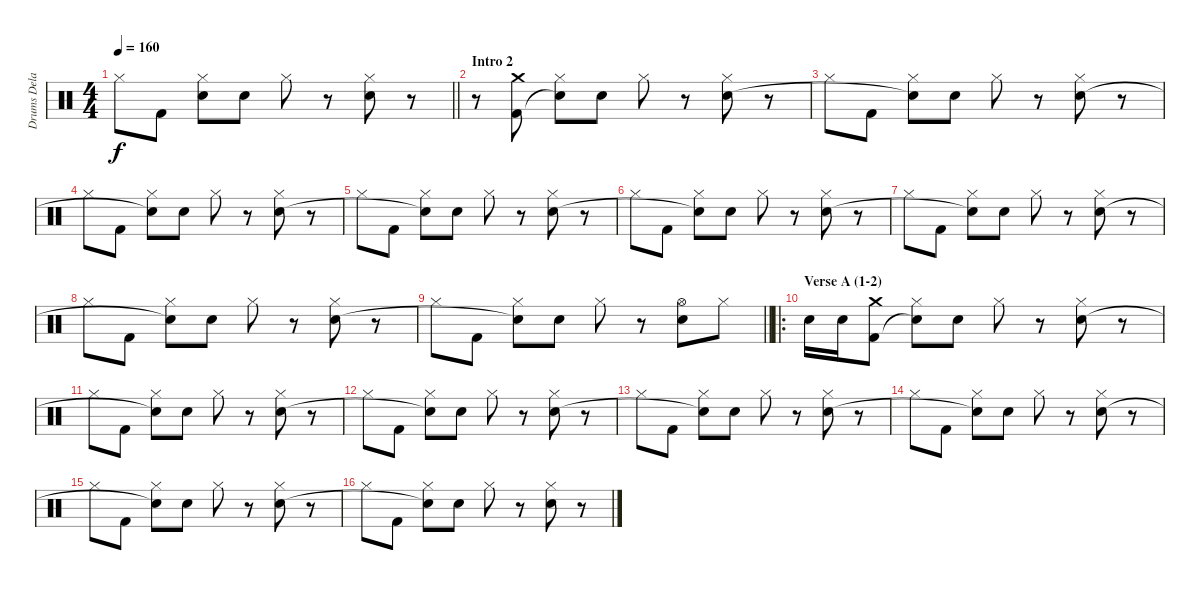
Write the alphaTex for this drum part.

\track ("Drums Delay" "Drums Dela") {instrument percussion}
\staff {score}
\articulation defaults
\ts (4 4)
\tempo 160
\clef neutral
\barLineRight lightlight
\ks c "Hi-Hat (closed)".8{dy f} "Kick (hit) 2".8
("Hi-Hat (closed)" "Snare (hit)"{t}).8 "Electric Snare (hit)".8 "Hi-Hat (closed)".8 r.8 ("Hi-Hat (closed)" "Electric Snare (hit)").8 r.8 |
\section ("" "Intro 2")
r.8 ("Crash medium (hit)" "Kick (hit) 2").8 ("Hi-Hat (closed)" "Snare (hit)"{t}).8 "Electric Snare (hit)".8 "Hi-Hat (closed)".8 r.8 ("Hi-Hat (closed)" "Electric Snare (hit)").8 r.8 |
"Hi-Hat (closed)".8 "Kick (hit) 2".8 ("Hi-Hat (closed)" "Snare (hit)"{t}).8 "Electric Snare (hit)".8 "Hi-Hat (closed)".8 r.8 ("Hi-Hat (closed)" "Electric Snare (hit)").8 r.8 |
"Hi-Hat (closed)".8 "Kick (hit) 2".8 ("Hi-Hat (closed)" "Snare (hit)"{t}).8 "Electric Snare (hit)".8 "Hi-Hat (closed)".8 r.8 ("Hi-Hat (closed)" "Electric Snare (hit)").8 r.8 |
"Hi-Hat (closed)".8 "Kick (hit) 2".8 ("Hi-Hat (closed)" "Snare (hit)"{t}).8 "Electric Snare (hit)".8 "Hi-Hat (closed)".8 r.8 ("Hi-Hat (closed)" "Electric Snare (hit)").8 r.8 |
"Hi-Hat (closed)".8 "Kick (hit) 2".8 ("Hi-Hat (closed)" "Snare (hit)"{t}).8 "Electric Snare (hit)".8 "Hi-Hat (closed)".8 r.8 ("Hi-Hat (closed)" "Electric Snare (hit)").8 r.8 |
"Hi-Hat (closed)".8 "Kick (hit) 2".8 ("Hi-Hat (closed)" "Snare (hit)"{t}).8 "Electric Snare (hit)".8 "Hi-Hat (closed)".8 r.8 ("Hi-Hat (closed)" "Electric Snare (hit)").8 r.8 |
"Hi-Hat (closed)".8 "Kick (hit) 2".8 ("Hi-Hat (closed)" "Snare (hit)"{t}).8 "Electric Snare (hit)".8 "Hi-Hat (closed)".8 r.8 ("Hi-Hat (closed)" "Electric Snare (hit)").8 r.8 |
\barLineRight lightlight "Hi-Hat (closed)".8 "Kick (hit) 2".8
("Hi-Hat (closed)" "Snare (hit)"{t}).8 "Electric Snare (hit)".8 "Hi-Hat (closed)".8 r.8 ("Hi-Hat (open)" "Electric Snare (hit)").8 "Hi-Hat (closed)".8 |
\ro
\section ("" "Verse A (1-2)")
"Electric Snare (hit)".16 "Electric Snare (hit)".16 ("Crash medium (hit)" "Kick (hit) 2").8 ("Hi-Hat (closed)" "Snare (hit)"{t}).8 "Electric Snare (hit)".8 "Hi-Hat (closed)".8 r.8 ("Hi-Hat (closed)" "Electric Snare (hit)").8 r.8 |
"Hi-Hat (closed)".8 "Kick (hit) 2".8 ("Hi-Hat (closed)" "Snare (hit)"{t}).8 "Electric Snare (hit)".8 "Hi-Hat (closed)".8 r.8 ("Hi-Hat (closed)" "Electric Snare (hit)").8 r.8 |
"Hi-Hat (closed)".8 "Kick (hit) 2".8 ("Hi-Hat (closed)" "Snare (hit)"{t}).8 "Electric Snare (hit)".8 "Hi-Hat (closed)".8 r.8 ("Hi-Hat (closed)" "Electric Snare (hit)").8 r.8 |
"Hi-Hat (closed)".8 "Kick (hit) 2".8 ("Hi-Hat (closed)" "Snare (hit)"{t}).8 "Electric Snare (hit)".8 "Hi-Hat (closed)".8 r.8 ("Hi-Hat (closed)" "Electric Snare (hit)").8 r.8 |
"Hi-Hat (closed)".8 "Kick (hit) 2".8 ("Hi-Hat (closed)" "Snare (hit)"{t}).8 "Electric Snare (hit)".8 "Hi-Hat (closed)".8 r.8 ("Hi-Hat (closed)" "Electric Snare (hit)").8 r.8 |
"Hi-Hat (closed)".8 "Kick (hit) 2".8 ("Hi-Hat (closed)" "Snare (hit)"{t}).8 "Electric Snare (hit)".8 "Hi-Hat (closed)".8 r.8 ("Hi-Hat (closed)" "Electric Snare (hit)").8 r.8 |
"Hi-Hat (closed)".8 "Kick (hit) 2".8 ("Hi-Hat (closed)" "Snare (hit)"{t}).8 "Electric Snare (hit)".8 "Hi-Hat (closed)".8 r.8 ("Hi-Hat (closed)" "Electric Snare (hit)").8 r.8
